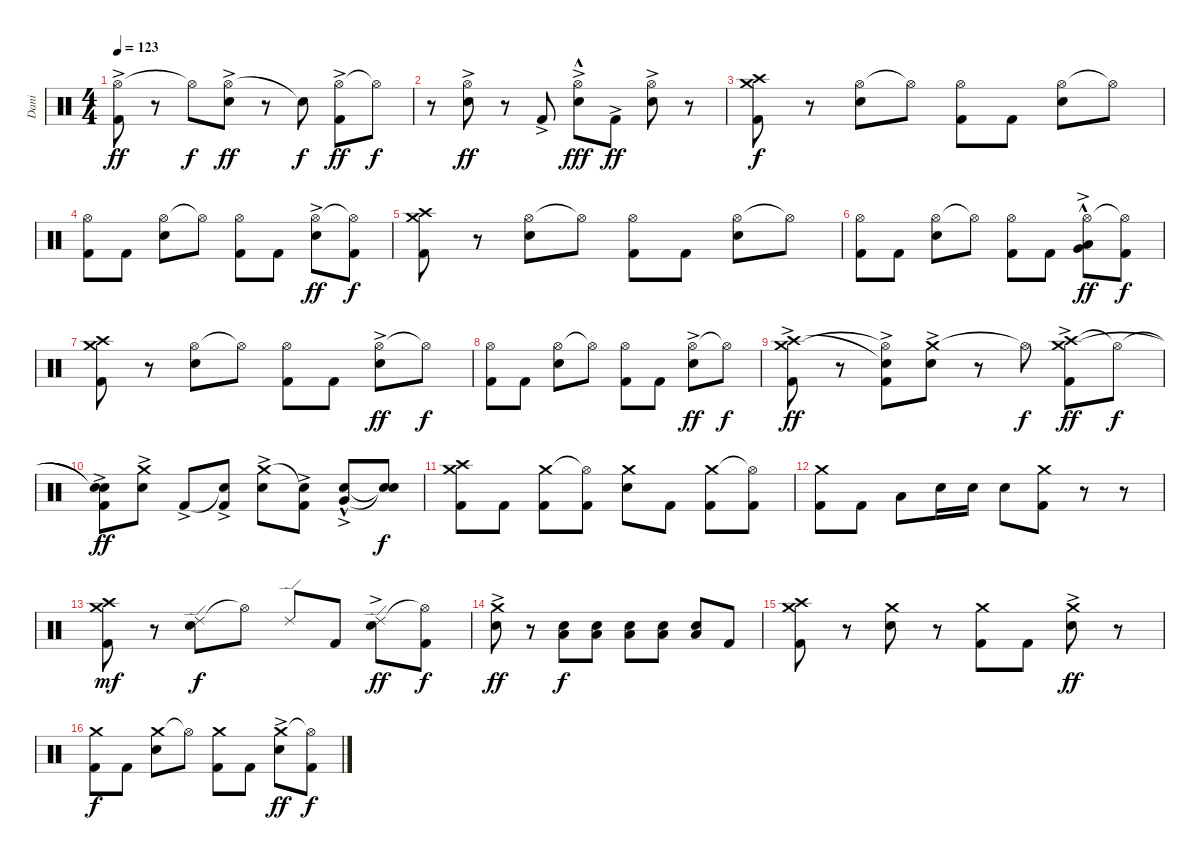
\track ("Dani" "Dani") {instrument percussion}
\staff {score}
\articulation defaults
\ts (4 4)
\tempo 123
\clef neutral
\ks c
("Hi-Hat (open)" "Kick (hit) 2"{ac}).8{dy ff} r.8 "Hi-Hat (open)"{t}.8{dy f} ("Hi-Hat (open)"{ac} "Snare (hit) 2"{ac}).8{dy ff} r.8 "Snare (hit)"{t}.8{dy f} ("Hi-Hat (open)" "Kick (hit) 2"{ac}).8{dy ff} "Hi-Hat (open)"{t}.8{dy f} |
r.8 ("Hi-Hat (open)"{ac} "Snare (hit) 2"{ac}).8{dy ff} r.8 "Kick (hit) 2"{ac}.8 ("Hi-Hat (open)"{ac} "Snare (hit) 2"{hac}).8{dy fff} "Kick (hit) 2"{ac}.8{dy ff} ("Hi-Hat (open)"{ac} "Snare (hit) 2").8 r.8 |
("Crash high (hit)" "Crash medium (hit)" "Kick (hit) 2").8{dy f} r.8 ("Hi-Hat (open)" "Snare (hit) 2").8 "Hi-Hat (open)"{t}.8 ("Hi-Hat (open)" "Kick (hit) 2").8 "Kick (hit) 2".8 ("Hi-Hat (open)" "Snare (hit) 2").8 "Hi-Hat (open)"{t}.8 |
("Hi-Hat (open)" "Kick (hit) 2").8 "Kick (hit) 2".8 ("Hi-Hat (open)" "Snare (hit) 2").8 "Hi-Hat (open)"{t}.8 ("Hi-Hat (open)" "Kick (hit) 2").8 "Kick (hit) 2".8 ("Hi-Hat (open)" "Snare (hit) 2"{ac}).8{dy ff} ("Hi-Hat (open)"{t} "Kick (hit) 2").8{dy f} |
("Crash high (hit)" "Crash medium (hit)" "Kick (hit) 2").8 r.8 ("Hi-Hat (open)" "Snare (hit) 2").8 "Hi-Hat (open)"{t}.8 ("Hi-Hat (open)" "Kick (hit) 2").8 "Kick (hit) 2".8 ("Hi-Hat (open)" "Snare (hit) 2").8 "Hi-Hat (open)"{t}.8 |
("Hi-Hat (open)" "Kick (hit) 2").8 "Kick (hit) 2".8 ("Hi-Hat (open)" "Snare (hit) 2").8 "Hi-Hat (open)"{t}.8 ("Hi-Hat (open)" "Kick (hit) 2").8 "Kick (hit) 2".8 ("Hi-Hat (open)" "Very Low Tom (hit)"{hac} "Low Tom (hit)"{ac}).8{dy ff} ("Hi-Hat (open)"{t} "Kick (hit) 2").8{dy f} |
("Crash high (hit)" "Crash medium (hit)" "Kick (hit) 2").8 r.8 ("Hi-Hat (open)" "Snare (hit) 2").8 "Hi-Hat (open)"{t}.8 ("Hi-Hat (open)" "Kick (hit) 2").8 "Kick (hit) 2".8 ("Hi-Hat (open)" "Snare (hit) 2"{ac}).8{dy ff} "Hi-Hat (open)"{t}.8{dy f} |
("Hi-Hat (open)" "Kick (hit) 2").8 "Kick (hit) 2".8 ("Hi-Hat (open)" "Snare (hit) 2").8 "Hi-Hat (open)"{t}.8 ("Hi-Hat (open)" "Kick (hit) 2").8 "Kick (hit) 2".8 ("Hi-Hat (open)" "Snare (hit) 2"{ac}).8{dy ff} "Hi-Hat (open)"{t}.8{dy f} |
("Crash high (hit)" "Crash medium (hit)" "Kick (hit) 2"{ac}).8{dy ff} r.8 ("Snare (hit)"{t} "Hi-Hat (open)"{t} "Kick (hit) 2"{ac}).8 ("Crash medium (hit)"{ac} "Snare (hit) 2"{ac}).8 r.8 "Hi-Hat (open)"{t}.8{dy f} ("Crash high (hit)" "Crash medium (hit)" "Kick (hit) 2"{ac}).8{dy ff} "Hi-Hat (open)"{t}.8{dy f} |
("Snare (hit)"{t} "Snare (hit)"{t} "Kick (hit) 2"{ac}).8{dy ff} ("Crash medium (hit)"{ac} "Snare (hit) 2"{ac}).8 "Kick (hit) 2"{ac}.8 ("Snare (hit)"{t} "Kick (hit) 2"{ac}).8 ("Crash medium (hit)"{ac} "Snare (hit) 2"{ac}).8 ("Snare (hit)"{t} "Kick (hit) 2"{ac}).8 ("Very Low Tom (hit)"{hac} "Snare (hit) 2"{ac}).8 ("Snare (hit)"{t} "Snare (hit)"{t}).8{dy f} |
("Crash high (hit)" "Crash medium (hit)" "Kick (hit) 2").8 "Kick (hit) 2".8 ("Crash medium (hit)" "Kick (hit) 2").8 ("Hi-Hat (open)"{t} "Kick (hit) 2").8 ("Crash medium (hit)" "Snare (hit) 2").8 "Kick (hit) 2".8 ("Crash medium (hit)" "Kick (hit) 2").8 ("Hi-Hat (open)"{t} "Kick (hit) 2").8 |
("Crash medium (hit)" "Kick (hit) 2").8 "Kick (hit) 2".8 "Low Tom (hit)".8 "Snare (hit) 2".16 "Snare (hit) 2".16 "Snare (hit) 2".8 ("Crash medium (hit)" "Kick (hit) 2").8 r.8 r.8 |
("Crash high (hit)" "Crash medium (hit)" "Kick (hit) 2").8{dy mf} r.8 ("Ride (edge) 2" "Snare (hit) 2").8{dy f} "Hi-Hat (open)"{t}.8 "Ride (edge) 2".8 "Kick (hit) 2".8 ("Ride (edge) 2" "Snare (hit) 2"{ac}).8{dy ff} ("Hi-Hat (open)"{t} "Kick (hit) 2").8{dy f} |
("Crash medium (hit)"{ac} "Snare (hit) 2"{ac}).8{dy ff} r.8 ("Low Floor Tom (hit)" "Snare (hit) 2").8{dy f} ("Low Floor Tom (hit)" "Snare (hit) 2").8 ("Low Floor Tom (hit)" "Snare (hit) 2").8 ("Low Floor Tom (hit)" "Snare (hit) 2").8 ("Low Floor Tom (hit)" "Snare (hit) 2").8 "Kick (hit) 2".8 |
("Crash high (hit)" "Crash medium (hit)" "Kick (hit) 2").8 r.8 ("Crash medium (hit)" "Snare (hit) 2").8 r.8 ("Crash medium (hit)" "Kick (hit) 2").8 "Kick (hit) 2".8 ("Crash medium (hit)" "Snare (hit) 2"{ac}).8{dy ff} r.8 |
("Crash medium (hit)" "Kick (hit) 2").8{dy f} "Kick (hit) 2".8 ("Crash medium (hit)" "Snare (hit) 2").8 "Hi-Hat (open)"{t}.8 ("Crash medium (hit)" "Kick (hit) 2").8 "Kick (hit) 2".8 ("Crash medium (hit)" "Snare (hit) 2"{ac}).8{dy ff} ("Hi-Hat (open)"{t} "Kick (hit) 2").8{dy f}
